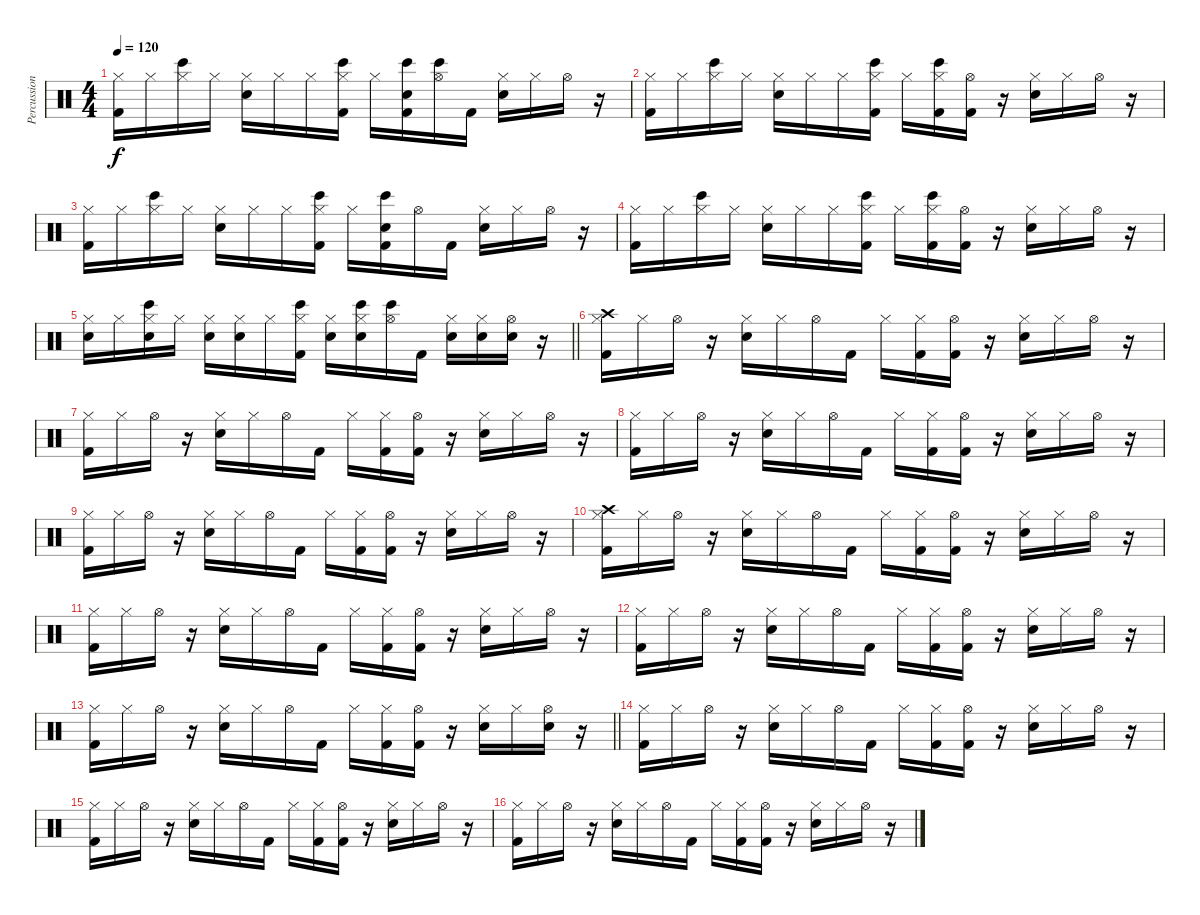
\track ("Percussion" "Percussion") {instrument percussion}
\staff {score}
\articulation defaults
\ts (4 4)
\tempo 120
\clef neutral
\ks c
("Hi-Hat (closed)" "Kick (hit) 2").16{dy f} "Hi-Hat (closed)".16 ("Hi-Hat (closed)" "Bongo High (hit)").16 "Hi-Hat (closed)".16 ("Hi-Hat (closed)" "Snare (hit) 2").16 "Hi-Hat (closed)".16 "Hi-Hat (closed)".16 ("Hi-Hat (closed)" "Bongo High (hit)" "Kick (hit) 2").16 "Hi-Hat (closed)".16 ("Snare (hit)" "Bongo High (hit)" "Kick (hit) 2").16 ("Hi-Hat (open)" "Bongo High (hit)").16 "Kick (hit) 2".16 ("Hi-Hat (closed)" "Snare (hit) 2").16 "Hi-Hat (closed)".16 "Hi-Hat (open)".16 r.16 |
("Hi-Hat (closed)" "Kick (hit) 2").16 "Hi-Hat (closed)".16 ("Hi-Hat (closed)" "Bongo High (hit)").16 "Hi-Hat (closed)".16 ("Hi-Hat (closed)" "Snare (hit) 2").16 "Hi-Hat (closed)".16 "Hi-Hat (closed)".16 ("Hi-Hat (closed)" "Bongo High (hit)" "Kick (hit) 2").16 "Hi-Hat (closed)".16 ("Hi-Hat (closed)" "Bongo High (hit)" "Kick (hit) 2").16 ("Hi-Hat (open)" "Kick (hit) 2").16 r.16 ("Hi-Hat (closed)" "Snare (hit) 2").16 "Hi-Hat (closed)".16 "Hi-Hat (open)".16 r.16 |
("Hi-Hat (closed)" "Kick (hit) 2").16 "Hi-Hat (closed)".16 ("Hi-Hat (closed)" "Bongo High (hit)").16 "Hi-Hat (closed)".16 ("Hi-Hat (closed)" "Snare (hit) 2").16 "Hi-Hat (closed)".16 "Hi-Hat (closed)".16 ("Hi-Hat (closed)" "Bongo High (hit)" "Kick (hit) 2").16 "Hi-Hat (closed)".16 ("Snare (hit)" "Bongo High (hit)" "Kick (hit) 2").16 "Hi-Hat (open)".16 "Kick (hit) 2".16 ("Hi-Hat (closed)" "Snare (hit) 2").16 "Hi-Hat (closed)".16 "Hi-Hat (open)".16 r.16 |
("Hi-Hat (closed)" "Kick (hit) 2").16 "Hi-Hat (closed)".16 ("Hi-Hat (closed)" "Bongo High (hit)").16 "Hi-Hat (closed)".16 ("Hi-Hat (closed)" "Snare (hit) 2").16 "Hi-Hat (closed)".16 "Hi-Hat (closed)".16 ("Hi-Hat (closed)" "Bongo High (hit)" "Kick (hit) 2").16 "Hi-Hat (closed)".16 ("Hi-Hat (closed)" "Bongo High (hit)" "Kick (hit) 2").16 ("Hi-Hat (open)" "Kick (hit) 2").16 r.16 ("Hi-Hat (closed)" "Snare (hit) 2").16 "Hi-Hat (closed)".16 "Hi-Hat (open)".16 r.16 |
\barLineRight lightlight
("Hi-Hat (closed)" "Snare (hit) 2").16 "Hi-Hat (closed)".16 ("Hi-Hat (closed)" "Bongo High (hit)" "Snare (hit) 2").16 "Hi-Hat (closed)".16 ("Hi-Hat (closed)" "Snare (hit) 2").16 ("Hi-Hat (closed)" "Snare (hit) 2").16 "Hi-Hat (closed)".16 ("Hi-Hat (closed)" "Bongo High (hit)" "Kick (hit) 2").16 ("Hi-Hat (closed)" "Snare (hit) 2").16 ("Hi-Hat (closed)" "Bongo High (hit)" "Snare (hit) 2").16 ("Hi-Hat (open)" "Bongo High (hit)").16 "Kick (hit) 2".16 ("Hi-Hat (closed)" "Snare (hit) 2").16 ("Hi-Hat (closed)" "Snare (hit) 2").16 ("Hi-Hat (open)" "Snare (hit) 2").16 r.16 |
("Hi-Hat (closed)" "Crash high (hit)" "Kick (hit) 2").16 "Hi-Hat (closed)".16 "Hi-Hat (open)".16 r.16 ("Hi-Hat (closed)" "Snare (hit) 2").16 "Hi-Hat (closed)".16 "Hi-Hat (open)".16 "Kick (hit) 2".16 "Hi-Hat (closed)".16 ("Hi-Hat (closed)" "Kick (hit) 2").16 ("Hi-Hat (open)" "Kick (hit) 2").16 r.16 ("Hi-Hat (closed)" "Snare (hit) 2").16 "Hi-Hat (closed)".16 "Hi-Hat (open)".16 r.16 |
("Hi-Hat (closed)" "Kick (hit) 2").16 "Hi-Hat (closed)".16 "Hi-Hat (open)".16 r.16 ("Hi-Hat (closed)" "Snare (hit) 2").16 "Hi-Hat (closed)".16 "Hi-Hat (open)".16 "Kick (hit) 2".16 "Hi-Hat (closed)".16 ("Hi-Hat (closed)" "Kick (hit) 2").16 ("Hi-Hat (open)" "Kick (hit) 2").16 r.16 ("Hi-Hat (closed)" "Snare (hit) 2").16 "Hi-Hat (closed)".16 "Hi-Hat (open)".16 r.16 |
("Hi-Hat (closed)" "Kick (hit) 2").16 "Hi-Hat (closed)".16 "Hi-Hat (open)".16 r.16 ("Hi-Hat (closed)" "Snare (hit) 2").16 "Hi-Hat (closed)".16 "Hi-Hat (open)".16 "Kick (hit) 2".16 "Hi-Hat (closed)".16 ("Hi-Hat (closed)" "Kick (hit) 2").16 ("Hi-Hat (open)" "Kick (hit) 2").16 r.16 ("Hi-Hat (closed)" "Snare (hit) 2").16 "Hi-Hat (closed)".16 "Hi-Hat (open)".16 r.16 |
("Hi-Hat (closed)" "Kick (hit) 2").16 "Hi-Hat (closed)".16 "Hi-Hat (open)".16 r.16 ("Hi-Hat (closed)" "Snare (hit) 2").16 "Hi-Hat (closed)".16 "Hi-Hat (open)".16 "Kick (hit) 2".16 "Hi-Hat (closed)".16 ("Hi-Hat (closed)" "Kick (hit) 2").16 ("Hi-Hat (open)" "Kick (hit) 2").16 r.16 ("Hi-Hat (closed)" "Snare (hit) 2").16 "Hi-Hat (closed)".16 "Hi-Hat (open)".16 r.16 |
("Hi-Hat (closed)" "Crash high (hit)" "Kick (hit) 2").16 "Hi-Hat (closed)".16 "Hi-Hat (open)".16 r.16 ("Hi-Hat (closed)" "Snare (hit) 2").16 "Hi-Hat (closed)".16 "Hi-Hat (open)".16 "Kick (hit) 2".16 "Hi-Hat (closed)".16 ("Hi-Hat (closed)" "Kick (hit) 2").16 ("Hi-Hat (open)" "Kick (hit) 2").16 r.16 ("Hi-Hat (closed)" "Snare (hit) 2").16 "Hi-Hat (closed)".16 "Hi-Hat (open)".16 r.16 |
("Hi-Hat (closed)" "Kick (hit) 2").16 "Hi-Hat (closed)".16 "Hi-Hat (open)".16 r.16 ("Hi-Hat (closed)" "Snare (hit) 2").16 "Hi-Hat (closed)".16 "Hi-Hat (open)".16 "Kick (hit) 2".16 "Hi-Hat (closed)".16 ("Hi-Hat (closed)" "Kick (hit) 2").16 ("Hi-Hat (open)" "Kick (hit) 2").16 r.16 ("Hi-Hat (closed)" "Snare (hit) 2").16 "Hi-Hat (closed)".16 "Hi-Hat (open)".16 r.16 |
("Hi-Hat (closed)" "Kick (hit) 2").16 "Hi-Hat (closed)".16 "Hi-Hat (open)".16 r.16 ("Hi-Hat (closed)" "Snare (hit) 2").16 "Hi-Hat (closed)".16 "Hi-Hat (open)".16 "Kick (hit) 2".16 "Hi-Hat (closed)".16 ("Hi-Hat (closed)" "Kick (hit) 2").16 ("Hi-Hat (open)" "Kick (hit) 2").16 r.16 ("Hi-Hat (closed)" "Snare (hit) 2").16 "Hi-Hat (closed)".16 "Hi-Hat (open)".16 r.16 |
\barLineRight lightlight
("Hi-Hat (closed)" "Kick (hit) 2").16 "Hi-Hat (closed)".16 "Hi-Hat (open)".16 r.16 ("Hi-Hat (closed)" "Snare (hit) 2").16 "Hi-Hat (closed)".16 "Hi-Hat (open)".16 "Kick (hit) 2".16 "Hi-Hat (closed)".16 ("Hi-Hat (closed)" "Kick (hit) 2").16 ("Hi-Hat (open)" "Kick (hit) 2").16 r.16 ("Hi-Hat (closed)" "Snare (hit) 2").16 "Hi-Hat (closed)".16 ("Hi-Hat (open)" "Snare (hit) 2").16 r.16 |
("Hi-Hat (closed)" "Kick (hit) 2").16 "Hi-Hat (closed)".16 "Hi-Hat (open)".16 r.16 ("Hi-Hat (closed)" "Snare (hit) 2").16 "Hi-Hat (closed)".16 "Hi-Hat (open)".16 "Kick (hit) 2".16 "Hi-Hat (closed)".16 ("Hi-Hat (closed)" "Kick (hit) 2").16 ("Hi-Hat (open)" "Kick (hit) 2").16 r.16 ("Hi-Hat (closed)" "Snare (hit) 2").16 "Hi-Hat (closed)".16 "Hi-Hat (open)".16 r.16 |
("Hi-Hat (closed)" "Kick (hit) 2").16 "Hi-Hat (closed)".16 "Hi-Hat (open)".16 r.16 ("Hi-Hat (closed)" "Snare (hit) 2").16 "Hi-Hat (closed)".16 "Hi-Hat (open)".16 "Kick (hit) 2".16 "Hi-Hat (closed)".16 ("Hi-Hat (closed)" "Kick (hit) 2").16 ("Hi-Hat (open)" "Kick (hit) 2").16 r.16 ("Hi-Hat (closed)" "Snare (hit) 2").16 "Hi-Hat (closed)".16 "Hi-Hat (open)".16 r.16 |
("Hi-Hat (closed)" "Kick (hit) 2").16 "Hi-Hat (closed)".16 "Hi-Hat (open)".16 r.16 ("Hi-Hat (closed)" "Snare (hit) 2").16 "Hi-Hat (closed)".16 "Hi-Hat (open)".16 "Kick (hit) 2".16 "Hi-Hat (closed)".16 ("Hi-Hat (closed)" "Kick (hit) 2").16 ("Hi-Hat (open)" "Kick (hit) 2").16 r.16 ("Hi-Hat (closed)" "Snare (hit) 2").16 "Hi-Hat (closed)".16 "Hi-Hat (open)".16 r.16
